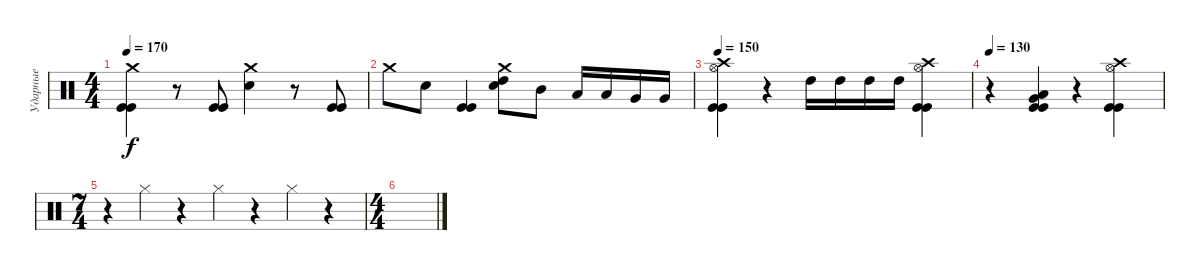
\track ("Ударные" "Ударные") {instrument percussion}
\staff {score}
\articulation defaults
\ts (4 4)
\tempo 170
\clef neutral
\ks c
("Crash medium (hit)" "Kick (hit)" "Kick (hit)").4{dy f} r.8 ("Kick (hit)" "Kick (hit)").8 ("Crash medium (hit)" "Electric Snare (hit)").4 r.8 ("Kick (hit)" "Kick (hit)").8 |
"Crash medium (hit)".8 "Electric Snare (hit)".8 ("Kick (hit)" "Kick (hit)").4 ("Crash medium (hit)" "Electric Snare (hit)" "High Tom (hit)").8 "Mid Tom (hit)".8 "Low Tom (hit)".16 "Low Tom (hit)".16 "Very Low Tom (hit)".16 "Very Low Tom (hit)".16 |
\tempo 150
("Crash high (hit)" "Hi-Hat (open)" "Kick (hit)" "Kick (hit)").4 r.4 "High Tom (hit)".16 "High Tom (hit)".16 "High Tom (hit)".16 "High Tom (hit)".16 ("Crash high (hit)" "Hi-Hat (open)" "Kick (hit)" "Kick (hit)").4 |
\tempo 130
r.4 ("Low Tom (hit)" "Very Low Tom (hit)" "Kick (hit)" "Kick (hit)").4 r.4 ("Crash high (hit)" "Hi-Hat (open)" "Kick (hit)" "Kick (hit)").4 |
\ts (7 4)
r.4 "Hi-Hat (closed)".4 r.4 "Hi-Hat (closed)".4 r.4 "Hi-Hat (closed)".4 r.4 |
\ts (4 4)
